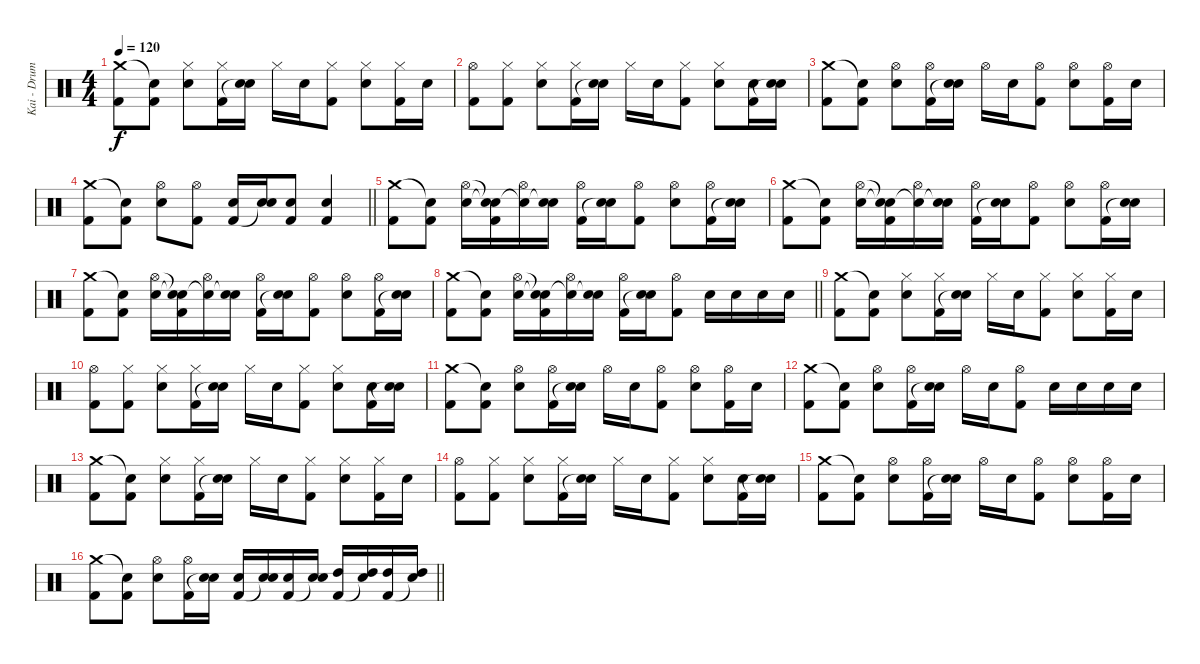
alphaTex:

\track ("Kai - Drums" "Kai - Drum") {instrument percussion}
\staff {score}
\articulation defaults
\ts (4 4)
\tempo 120
\clef neutral
\ks c
("Crash medium (hit)" "Kick (hit) 2").8{dy f} ("Snare (hit)"{t} "Kick (hit) 2").8 ("Hi-Hat (closed)" "Snare (hit) 2").8 ("Hi-Hat (closed)" "Kick (hit) 2").16 ("Snare (hit) 2" "Snare (hit)"{t}).16 "Hi-Hat (closed)".16 "Snare (hit) 2".16 ("Hi-Hat (closed)" "Kick (hit) 2").8 ("Hi-Hat (closed)" "Snare (hit) 2").8 ("Hi-Hat (closed)" "Kick (hit) 2").16 "Snare (hit) 2".16 |
("Hi-Hat (open)" "Kick (hit) 2").8 ("Hi-Hat (closed)" "Kick (hit) 2").8 ("Hi-Hat (closed)" "Snare (hit) 2").8 ("Hi-Hat (closed)" "Kick (hit) 2").16 ("Snare (hit) 2" "Snare (hit)"{t}).16 "Hi-Hat (closed)".16 "Snare (hit) 2".16 ("Hi-Hat (closed)" "Kick (hit) 2").8 ("Hi-Hat (closed)" "Snare (hit) 2").8 ("Snare (hit) 2" "Kick (hit) 2").16 ("Snare (hit) 2" "Snare (hit)"{t}).16 |
("Crash medium (hit)" "Kick (hit) 2").8 ("Snare (hit)"{t} "Kick (hit) 2").8 ("Hi-Hat (open)" "Snare (hit) 2").8 ("Hi-Hat (open)" "Kick (hit) 2").16 ("Snare (hit) 2" "Snare (hit)"{t}).16 "Hi-Hat (open)".16 "Snare (hit) 2".16 ("Hi-Hat (open)" "Kick (hit) 2").8 ("Hi-Hat (open)" "Snare (hit) 2").8 ("Hi-Hat (open)" "Kick (hit) 2").16 "Snare (hit) 2".16 |
\barLineRight lightlight
("Crash medium (hit)" "Kick (hit) 2").8 ("Snare (hit)"{t} "Kick (hit) 2").8 ("Hi-Hat (open)" "Snare (hit) 2").8 ("Hi-Hat (open)" "Kick (hit) 2").8 ("Snare (hit) 2" "Kick (hit) 2").16 ("Snare (hit) 2" "Snare (hit)"{t}).16 ("Snare (hit) 2" "Kick (hit) 2").8 ("Snare (hit) 2" "Kick (hit) 2").4 |
("Crash medium (hit)" "Kick (hit) 2").8 ("Snare (hit)"{t} "Kick (hit) 2").8 ("Hi-Hat (open)" "Snare (hit) 2").16 ("Snare (hit)"{t} "Snare (hit)"{t} "Kick (hit) 2").16 ("Hi-Hat (open)" "Snare (hit)"{t}).16 ("Snare (hit) 2" "Snare (hit)"{t}).16 ("Hi-Hat (open)" "Kick (hit) 2").16 ("Snare (hit) 2" "Snare (hit)"{t}).16 ("Hi-Hat (open)" "Kick (hit) 2").8 ("Hi-Hat (open)" "Snare (hit) 2").8 ("Hi-Hat (open)" "Kick (hit) 2").16 ("Snare (hit) 2" "Snare (hit)"{t}).16 |
("Crash medium (hit)" "Kick (hit) 2").8 ("Snare (hit)"{t} "Kick (hit) 2").8 ("Hi-Hat (open)" "Snare (hit) 2").16 ("Snare (hit)"{t} "Snare (hit)"{t} "Kick (hit) 2").16 ("Hi-Hat (open)" "Snare (hit)"{t}).16 ("Snare (hit) 2" "Snare (hit)"{t}).16 ("Hi-Hat (open)" "Kick (hit) 2").16 ("Snare (hit) 2" "Snare (hit)"{t}).16 ("Hi-Hat (open)" "Kick (hit) 2").8 ("Hi-Hat (open)" "Snare (hit) 2").8 ("Hi-Hat (open)" "Kick (hit) 2").16 ("Snare (hit) 2" "Snare (hit)"{t}).16 |
("Crash medium (hit)" "Kick (hit) 2").8 ("Snare (hit)"{t} "Kick (hit) 2").8 ("Hi-Hat (open)" "Snare (hit) 2").16 ("Snare (hit)"{t} "Snare (hit)"{t} "Kick (hit) 2").16 ("Hi-Hat (open)" "Snare (hit)"{t}).16 ("Snare (hit) 2" "Snare (hit)"{t}).16 ("Hi-Hat (open)" "Kick (hit) 2").16 ("Snare (hit) 2" "Snare (hit)"{t}).16 ("Hi-Hat (open)" "Kick (hit) 2").8 ("Hi-Hat (open)" "Snare (hit) 2").8 ("Hi-Hat (open)" "Kick (hit) 2").16 ("Snare (hit) 2" "Snare (hit)"{t}).16 |
\barLineRight lightlight
("Crash medium (hit)" "Kick (hit) 2").8 ("Snare (hit)"{t} "Kick (hit) 2").8 ("Hi-Hat (open)" "Snare (hit) 2").16 ("Snare (hit)"{t} "Snare (hit)"{t} "Kick (hit) 2").16 ("Hi-Hat (open)" "Snare (hit)"{t}).16 ("Snare (hit) 2" "Snare (hit)"{t}).16 ("Hi-Hat (open)" "Kick (hit) 2").16 ("Snare (hit) 2" "Snare (hit)"{t}).16 ("Hi-Hat (open)" "Kick (hit) 2").8 "Snare (hit) 2".16 "Snare (hit) 2".16 "Snare (hit) 2".16 "Snare (hit) 2".16 |
("Crash medium (hit)" "Kick (hit) 2").8 ("Snare (hit)"{t} "Kick (hit) 2").8 ("Hi-Hat (closed)" "Snare (hit) 2").8 ("Hi-Hat (closed)" "Kick (hit) 2").16 ("Snare (hit) 2" "Snare (hit)"{t}).16 "Hi-Hat (closed)".16 "Snare (hit) 2".16 ("Hi-Hat (closed)" "Kick (hit) 2").8 ("Hi-Hat (closed)" "Snare (hit) 2").8 ("Hi-Hat (closed)" "Kick (hit) 2").16 "Snare (hit) 2".16 |
("Hi-Hat (open)" "Kick (hit) 2").8 ("Hi-Hat (closed)" "Kick (hit) 2").8 ("Hi-Hat (closed)" "Snare (hit) 2").8 ("Hi-Hat (closed)" "Kick (hit) 2").16 ("Snare (hit) 2" "Snare (hit)"{t}).16 "Hi-Hat (closed)".16 "Snare (hit) 2".16 ("Hi-Hat (closed)" "Kick (hit) 2").8 ("Hi-Hat (closed)" "Snare (hit) 2").8 ("Snare (hit) 2" "Kick (hit) 2").16 ("Snare (hit) 2" "Snare (hit)"{t}).16 |
("Crash medium (hit)" "Kick (hit) 2").8 ("Snare (hit)"{t} "Kick (hit) 2").8 ("Hi-Hat (open)" "Snare (hit) 2").8 ("Hi-Hat (open)" "Kick (hit) 2").16 ("Snare (hit) 2" "Snare (hit)"{t}).16 "Hi-Hat (open)".16 "Snare (hit) 2".16 ("Hi-Hat (open)" "Kick (hit) 2").8 ("Hi-Hat (open)" "Snare (hit) 2").8 ("Hi-Hat (open)" "Kick (hit) 2").16 "Snare (hit) 2".16 |
("Crash medium (hit)" "Kick (hit) 2").8 ("Snare (hit)"{t} "Kick (hit) 2").8 ("Hi-Hat (open)" "Snare (hit) 2").8 ("Hi-Hat (open)" "Kick (hit) 2").16 ("Snare (hit) 2" "Snare (hit)"{t}).16 "Hi-Hat (open)".16 "Snare (hit) 2".16 ("Hi-Hat (open)" "Kick (hit) 2").8 "Snare (hit) 2".16 "Snare (hit) 2".16 "Snare (hit) 2".16 "Snare (hit) 2".16 |
("Crash medium (hit)" "Kick (hit) 2").8 ("Snare (hit)"{t} "Kick (hit) 2").8 ("Hi-Hat (closed)" "Snare (hit) 2").8 ("Hi-Hat (closed)" "Kick (hit) 2").16 ("Snare (hit) 2" "Snare (hit)"{t}).16 "Hi-Hat (closed)".16 "Snare (hit) 2".16 ("Hi-Hat (closed)" "Kick (hit) 2").8 ("Hi-Hat (closed)" "Snare (hit) 2").8 ("Hi-Hat (closed)" "Kick (hit) 2").16 "Snare (hit) 2".16 |
("Hi-Hat (open)" "Kick (hit) 2").8 ("Hi-Hat (closed)" "Kick (hit) 2").8 ("Hi-Hat (closed)" "Snare (hit) 2").8 ("Hi-Hat (closed)" "Kick (hit) 2").16 ("Snare (hit) 2" "Snare (hit)"{t}).16 "Hi-Hat (closed)".16 "Snare (hit) 2".16 ("Hi-Hat (closed)" "Kick (hit) 2").8 ("Hi-Hat (closed)" "Snare (hit) 2").8 ("Snare (hit) 2" "Kick (hit) 2").16 ("Snare (hit) 2" "Snare (hit)"{t}).16 |
("Crash medium (hit)" "Kick (hit) 2").8 ("Snare (hit)"{t} "Kick (hit) 2").8 ("Hi-Hat (open)" "Snare (hit) 2").8 ("Hi-Hat (open)" "Kick (hit) 2").16 ("Snare (hit) 2" "Snare (hit)"{t}).16 "Hi-Hat (open)".16 "Snare (hit) 2".16 ("Hi-Hat (open)" "Kick (hit) 2").8 ("Hi-Hat (open)" "Snare (hit) 2").8 ("Hi-Hat (open)" "Kick (hit) 2").16 "Snare (hit) 2".16 |
\barLineRight lightlight
("Crash medium (hit)" "Kick (hit) 2").8 ("Snare (hit)"{t} "Kick (hit) 2").8 ("Hi-Hat (open)" "Snare (hit) 2").8 ("Hi-Hat (open)" "Kick (hit) 2").16 ("Snare (hit) 2" "Snare (hit)"{t}).16 ("Snare (hit) 2" "Kick (hit) 2").16 ("Snare (hit) 2" "Snare (hit)"{t}).16 ("Snare (hit) 2" "Kick (hit) 2").16 ("Snare (hit) 2" "Snare (hit)"{t}).16 ("High Tom (hit)" "Kick (hit) 2").16 ("High Tom (hit)" "Snare (hit)"{t}).16 ("High Tom (hit)" "Kick (hit) 2").16 ("High Tom (hit)" "Snare (hit)"{t}).16
